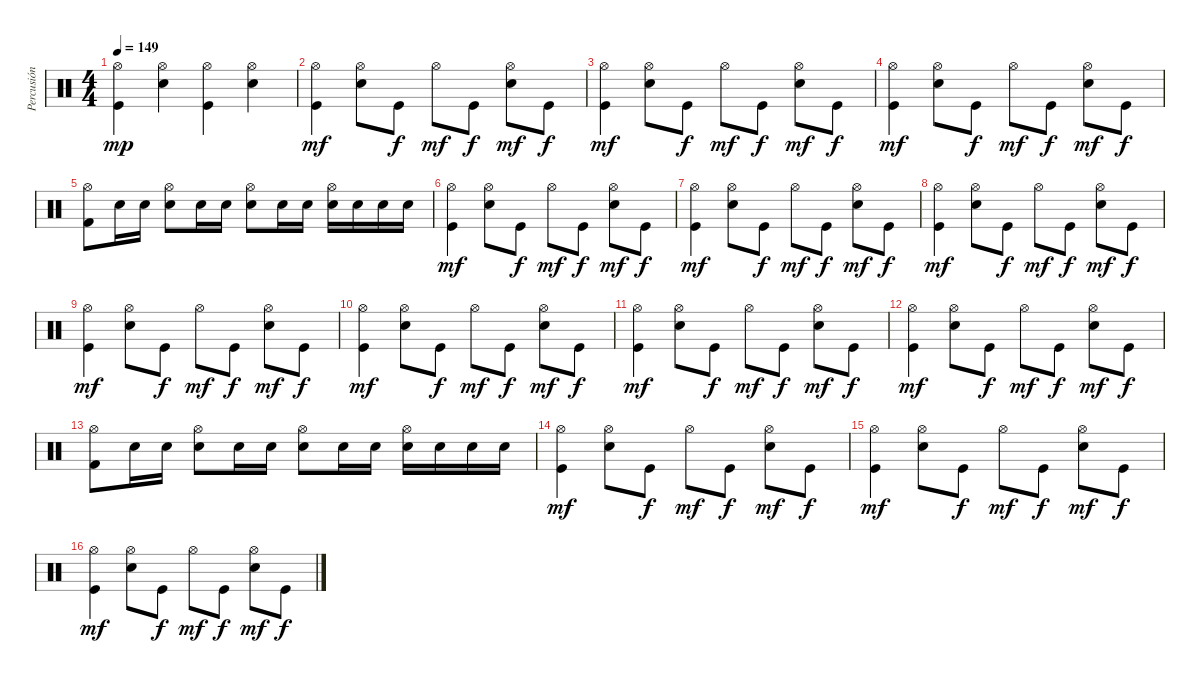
\track ("Percusión" "Percusión") {instrument percussion}
\staff {score}
\articulation defaults
\ts (4 4)
\tempo 149
\clef neutral
\ks c
("Kick (hit)" "Hi-Hat (open)").4{dy mp} ("Electric Snare (hit)" "Hi-Hat (open)").4 ("Kick (hit)" "Hi-Hat (open)").4 ("Electric Snare (hit)" "Hi-Hat (open)").4 |
("Hi-Hat (open)" "Kick (hit)").4{dy mf} ("Hi-Hat (open)" "Electric Snare (hit)").8 "Kick (hit)".8{dy f} "Hi-Hat (open)".8{dy mf} "Kick (hit)".8{dy f} ("Hi-Hat (open)" "Electric Snare (hit)").8{dy mf} "Kick (hit)".8{dy f} |
("Hi-Hat (open)" "Kick (hit)").4{dy mf} ("Hi-Hat (open)" "Electric Snare (hit)").8 "Kick (hit)".8{dy f} "Hi-Hat (open)".8{dy mf} "Kick (hit)".8{dy f} ("Hi-Hat (open)" "Electric Snare (hit)").8{dy mf} "Kick (hit)".8{dy f} |
("Hi-Hat (open)" "Kick (hit)").4{dy mf} ("Hi-Hat (open)" "Electric Snare (hit)").8 "Kick (hit)".8{dy f} "Hi-Hat (open)".8{dy mf} "Kick (hit)".8{dy f} ("Hi-Hat (open)" "Electric Snare (hit)").8{dy mf} "Kick (hit)".8{dy f} |
("Kick (hit) 2" "Hi-Hat (open)").8 "Electric Snare (hit)".16 "Electric Snare (hit)".16 ("Electric Snare (hit)" "Hi-Hat (open)").8 "Electric Snare (hit)".16 "Electric Snare (hit)".16 ("Electric Snare (hit)" "Hi-Hat (open)").8 "Electric Snare (hit)".16 "Electric Snare (hit)".16 ("Electric Snare (hit)" "Hi-Hat (open)").16 "Electric Snare (hit)".16 "Electric Snare (hit)".16 "Electric Snare (hit)".16 |
("Hi-Hat (open)" "Kick (hit)").4{dy mf} ("Hi-Hat (open)" "Electric Snare (hit)").8 "Kick (hit)".8{dy f} "Hi-Hat (open)".8{dy mf} "Kick (hit)".8{dy f} ("Hi-Hat (open)" "Electric Snare (hit)").8{dy mf} "Kick (hit)".8{dy f} |
("Hi-Hat (open)" "Kick (hit)").4{dy mf} ("Hi-Hat (open)" "Electric Snare (hit)").8 "Kick (hit)".8{dy f} "Hi-Hat (open)".8{dy mf} "Kick (hit)".8{dy f} ("Hi-Hat (open)" "Electric Snare (hit)").8{dy mf} "Kick (hit)".8{dy f} |
("Hi-Hat (open)" "Kick (hit)").4{dy mf} ("Hi-Hat (open)" "Electric Snare (hit)").8 "Kick (hit)".8{dy f} "Hi-Hat (open)".8{dy mf} "Kick (hit)".8{dy f} ("Hi-Hat (open)" "Electric Snare (hit)").8{dy mf} "Kick (hit)".8{dy f} |
("Hi-Hat (open)" "Kick (hit)").4{dy mf} ("Hi-Hat (open)" "Electric Snare (hit)").8 "Kick (hit)".8{dy f} "Hi-Hat (open)".8{dy mf} "Kick (hit)".8{dy f} ("Hi-Hat (open)" "Electric Snare (hit)").8{dy mf} "Kick (hit)".8{dy f} |
("Hi-Hat (open)" "Kick (hit)").4{dy mf} ("Hi-Hat (open)" "Electric Snare (hit)").8 "Kick (hit)".8{dy f} "Hi-Hat (open)".8{dy mf} "Kick (hit)".8{dy f} ("Hi-Hat (open)" "Electric Snare (hit)").8{dy mf} "Kick (hit)".8{dy f} |
("Hi-Hat (open)" "Kick (hit)").4{dy mf} ("Hi-Hat (open)" "Electric Snare (hit)").8 "Kick (hit)".8{dy f} "Hi-Hat (open)".8{dy mf} "Kick (hit)".8{dy f} ("Hi-Hat (open)" "Electric Snare (hit)").8{dy mf} "Kick (hit)".8{dy f} |
("Hi-Hat (open)" "Kick (hit)").4{dy mf} ("Hi-Hat (open)" "Electric Snare (hit)").8 "Kick (hit)".8{dy f} "Hi-Hat (open)".8{dy mf} "Kick (hit)".8{dy f} ("Hi-Hat (open)" "Electric Snare (hit)").8{dy mf} "Kick (hit)".8{dy f} |
("Kick (hit) 2" "Hi-Hat (open)").8 "Electric Snare (hit)".16 "Electric Snare (hit)".16 ("Electric Snare (hit)" "Hi-Hat (open)").8 "Electric Snare (hit)".16 "Electric Snare (hit)".16 ("Electric Snare (hit)" "Hi-Hat (open)").8 "Electric Snare (hit)".16 "Electric Snare (hit)".16 ("Electric Snare (hit)" "Hi-Hat (open)").16 "Electric Snare (hit)".16 "Electric Snare (hit)".16 "Electric Snare (hit)".16 |
("Hi-Hat (open)" "Kick (hit)").4{dy mf} ("Hi-Hat (open)" "Electric Snare (hit)").8 "Kick (hit)".8{dy f} "Hi-Hat (open)".8{dy mf} "Kick (hit)".8{dy f} ("Hi-Hat (open)" "Electric Snare (hit)").8{dy mf} "Kick (hit)".8{dy f} |
("Hi-Hat (open)" "Kick (hit)").4{dy mf} ("Hi-Hat (open)" "Electric Snare (hit)").8 "Kick (hit)".8{dy f} "Hi-Hat (open)".8{dy mf} "Kick (hit)".8{dy f} ("Hi-Hat (open)" "Electric Snare (hit)").8{dy mf} "Kick (hit)".8{dy f} |
("Hi-Hat (open)" "Kick (hit)").4{dy mf} ("Hi-Hat (open)" "Electric Snare (hit)").8 "Kick (hit)".8{dy f} "Hi-Hat (open)".8{dy mf} "Kick (hit)".8{dy f} ("Hi-Hat (open)" "Electric Snare (hit)").8{dy mf} "Kick (hit)".8{dy f}
